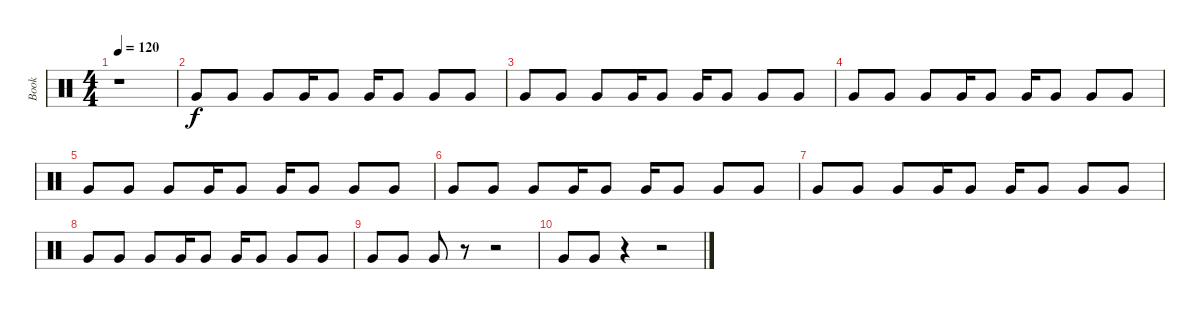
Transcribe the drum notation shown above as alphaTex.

\track ("Book" "Book") {instrument percussion}
\staff {score}
\articulation defaults
\ts (4 4)
\tempo 120
\clef neutral
\ks c
r.1{dy f} |
"Very Low Tom (hit)".8 "Very Low Tom (hit)".8 "Very Low Tom (hit)".8 "Very Low Tom (hit)".16 "Very Low Tom (hit)".8 "Very Low Tom (hit)".16 "Very Low Tom (hit)".8 "Very Low Tom (hit)".8 "Very Low Tom (hit)".8 |
"Very Low Tom (hit)".8 "Very Low Tom (hit)".8 "Very Low Tom (hit)".8 "Very Low Tom (hit)".16 "Very Low Tom (hit)".8 "Very Low Tom (hit)".16 "Very Low Tom (hit)".8 "Very Low Tom (hit)".8 "Very Low Tom (hit)".8 |
"Very Low Tom (hit)".8 "Very Low Tom (hit)".8 "Very Low Tom (hit)".8 "Very Low Tom (hit)".16 "Very Low Tom (hit)".8 "Very Low Tom (hit)".16 "Very Low Tom (hit)".8 "Very Low Tom (hit)".8 "Very Low Tom (hit)".8 |
"Very Low Tom (hit)".8 "Very Low Tom (hit)".8 "Very Low Tom (hit)".8 "Very Low Tom (hit)".16 "Very Low Tom (hit)".8 "Very Low Tom (hit)".16 "Very Low Tom (hit)".8 "Very Low Tom (hit)".8 "Very Low Tom (hit)".8 |
"Very Low Tom (hit)".8 "Very Low Tom (hit)".8 "Very Low Tom (hit)".8 "Very Low Tom (hit)".16 "Very Low Tom (hit)".8 "Very Low Tom (hit)".16 "Very Low Tom (hit)".8 "Very Low Tom (hit)".8 "Very Low Tom (hit)".8 |
"Very Low Tom (hit)".8 "Very Low Tom (hit)".8 "Very Low Tom (hit)".8 "Very Low Tom (hit)".16 "Very Low Tom (hit)".8 "Very Low Tom (hit)".16 "Very Low Tom (hit)".8 "Very Low Tom (hit)".8 "Very Low Tom (hit)".8 |
"Very Low Tom (hit)".8 "Very Low Tom (hit)".8 "Very Low Tom (hit)".8 "Very Low Tom (hit)".16 "Very Low Tom (hit)".8 "Very Low Tom (hit)".16 "Very Low Tom (hit)".8 "Very Low Tom (hit)".8 "Very Low Tom (hit)".8 |
"Very Low Tom (hit)".8 "Very Low Tom (hit)".8 "Very Low Tom (hit)".8 r.8 r.2 |
"Very Low Tom (hit)".8 "Very Low Tom (hit)".8 r.4 r.2
